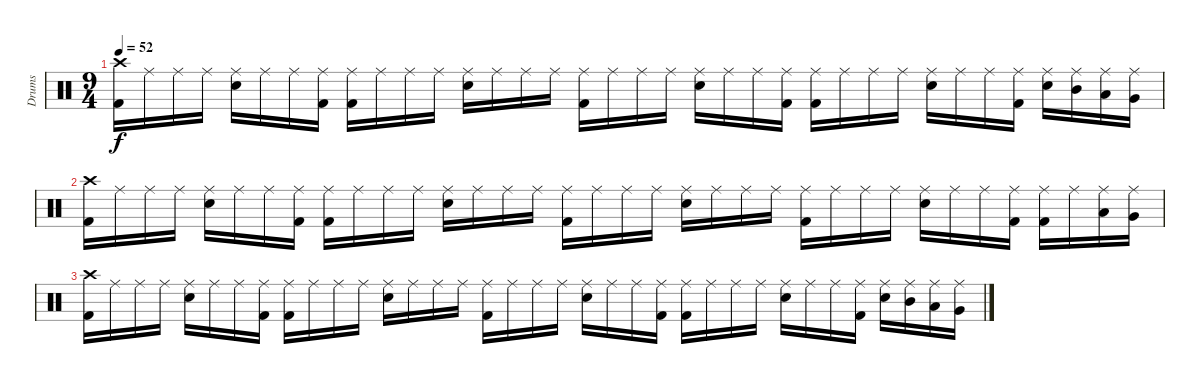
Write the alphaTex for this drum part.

\track ("Drums" "Drums") {instrument percussion}
\staff {score}
\articulation defaults
\ts (9 4)
\tempo 52
\clef neutral
\ks c
("Crash high (hit)" "Kick (hit) 2").16{dy f} "Ride (middle)".16 "Ride (middle)".16 "Ride (middle)".16 ("Ride (middle)" "Snare (hit) 2").16 "Ride (middle)".16 "Ride (middle)".16 ("Ride (middle)" "Kick (hit) 2").16 ("Ride (middle)" "Kick (hit) 2").16 "Ride (middle)".16 "Ride (middle)".16 "Ride (middle)".16 ("Ride (middle)" "Snare (hit) 2").16 "Ride (middle)".16 "Ride (middle)".16 "Ride (middle)".16 ("Ride (middle)" "Kick (hit) 2").16 "Ride (middle)".16 "Ride (middle)".16 "Ride (middle)".16 ("Ride (middle)" "Snare (hit) 2").16 "Ride (middle)".16 "Ride (middle)".16 ("Ride (middle)" "Kick (hit) 2").16 ("Ride (middle)" "Kick (hit) 2").16 "Ride (middle)".16 "Ride (middle)".16 "Ride (middle)".16 ("Ride (middle)" "Snare (hit) 2").16 "Ride (middle)".16 "Ride (middle)".16 ("Ride (middle)" "Kick (hit) 2").16 ("Ride (middle)" "Snare (hit) 2").16 ("Ride (middle)" "Mid Tom (hit)").16 ("Ride (middle)" "Low Floor Tom (hit)").16 ("Ride (middle)" "Very Low Tom (hit)").16 |
("Crash high (hit)" "Kick (hit) 2").16 "Ride (middle)".16 "Ride (middle)".16 "Ride (middle)".16 ("Ride (middle)" "Snare (hit) 2").16 "Ride (middle)".16 "Ride (middle)".16 ("Ride (middle)" "Kick (hit) 2").16 ("Ride (middle)" "Kick (hit) 2").16 "Ride (middle)".16 "Ride (middle)".16 "Ride (middle)".16 ("Ride (middle)" "Snare (hit) 2").16 "Ride (middle)".16 "Ride (middle)".16 "Ride (middle)".16 ("Ride (middle)" "Kick (hit) 2").16 "Ride (middle)".16 "Ride (middle)".16 "Ride (middle)".16 ("Ride (middle)" "Snare (hit) 2").16 "Ride (middle)".16 "Ride (middle)".16 "Ride (middle)".16 ("Ride (middle)" "Kick (hit) 2").16 "Ride (middle)".16 "Ride (middle)".16 "Ride (middle)".16 ("Ride (middle)" "Snare (hit) 2").16 "Ride (middle)".16 "Ride (middle)".16 ("Ride (middle)" "Kick (hit) 2").16 ("Ride (middle)" "Kick (hit) 2").16 "Ride (middle)".16 ("Ride (middle)" "Low Floor Tom (hit)").16 ("Ride (middle)" "Very Low Tom (hit)").16 |
("Crash high (hit)" "Kick (hit) 2").16 "Ride (middle)".16 "Ride (middle)".16 "Ride (middle)".16 ("Ride (middle)" "Snare (hit) 2").16 "Ride (middle)".16 "Ride (middle)".16 ("Ride (middle)" "Kick (hit) 2").16 ("Ride (middle)" "Kick (hit) 2").16 "Ride (middle)".16 "Ride (middle)".16 "Ride (middle)".16 ("Ride (middle)" "Snare (hit) 2").16 "Ride (middle)".16 "Ride (middle)".16 "Ride (middle)".16 ("Ride (middle)" "Kick (hit) 2").16 "Ride (middle)".16 "Ride (middle)".16 "Ride (middle)".16 ("Ride (middle)" "Snare (hit) 2").16 "Ride (middle)".16 "Ride (middle)".16 ("Ride (middle)" "Kick (hit) 2").16 ("Ride (middle)" "Kick (hit) 2").16 "Ride (middle)".16 "Ride (middle)".16 "Ride (middle)".16 ("Ride (middle)" "Snare (hit) 2").16 "Ride (middle)".16 "Ride (middle)".16 ("Ride (middle)" "Kick (hit) 2").16 ("Ride (middle)" "Snare (hit) 2").16 ("Ride (middle)" "Mid Tom (hit)").16 ("Ride (middle)" "Low Floor Tom (hit)").16 ("Ride (middle)" "Very Low Tom (hit)").16
